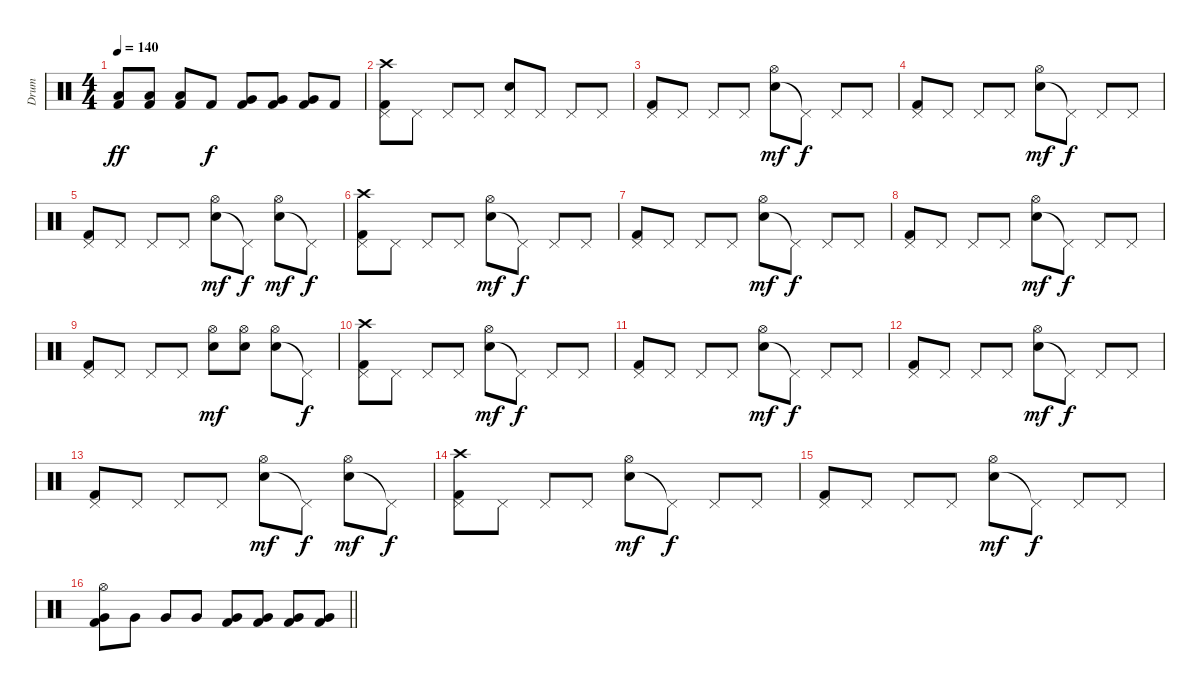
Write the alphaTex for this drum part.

\track ("Drum" "Drum") {instrument percussion}
\staff {score}
\articulation defaults
\ts (4 4)
\tempo 140
\clef neutral
\ks c
("Low Tom (hit)" "Kick (hit) 2").8{dy ff} ("Low Tom (hit)" "Kick (hit) 2").8 ("Low Tom (hit)" "Kick (hit) 2").8 "Kick (hit) 2".8{dy f} ("Very Low Tom (hit)" "Kick (hit) 2").8 ("Very Low Tom (hit)" "Kick (hit) 2").8 ("Very Low Tom (hit)" "Kick (hit) 2").8 "Kick (hit) 2".8 |
("Kick (hit) 2" "Pedal Hi-Hat (hit)" "Crash high (hit)").8 "Pedal Hi-Hat (hit)".8 "Pedal Hi-Hat (hit)".8 "Pedal Hi-Hat (hit)".8 ("Electric Snare (hit)" "Pedal Hi-Hat (hit)").8 "Pedal Hi-Hat (hit)".8 "Pedal Hi-Hat (hit)".8 "Pedal Hi-Hat (hit)".8 |
("Kick (hit) 2" "Pedal Hi-Hat (hit)").8 "Pedal Hi-Hat (hit)".8 "Pedal Hi-Hat (hit)".8 "Pedal Hi-Hat (hit)".8 ("Electric Snare (hit)" "Hi-Hat (open)").8{dy mf} "Pedal Hi-Hat (hit)"{t}.8{dy f} "Pedal Hi-Hat (hit)".8 "Pedal Hi-Hat (hit)".8 |
("Kick (hit) 2" "Pedal Hi-Hat (hit)").8 "Pedal Hi-Hat (hit)".8 "Pedal Hi-Hat (hit)".8 "Pedal Hi-Hat (hit)".8 ("Electric Snare (hit)" "Hi-Hat (open)").8{dy mf} "Pedal Hi-Hat (hit)"{t}.8{dy f} "Pedal Hi-Hat (hit)".8 "Pedal Hi-Hat (hit)".8 |
("Kick (hit) 2" "Pedal Hi-Hat (hit)").8 "Pedal Hi-Hat (hit)".8 "Pedal Hi-Hat (hit)".8 "Pedal Hi-Hat (hit)".8 ("Electric Snare (hit)" "Hi-Hat (open)").8{dy mf} "Pedal Hi-Hat (hit)"{t}.8{dy f} ("Electric Snare (hit)" "Hi-Hat (open)").8{dy mf} "Pedal Hi-Hat (hit)"{t}.8{dy f} |
("Kick (hit) 2" "Pedal Hi-Hat (hit)" "Crash high (hit)").8 "Pedal Hi-Hat (hit)".8 "Pedal Hi-Hat (hit)".8 "Pedal Hi-Hat (hit)".8 ("Electric Snare (hit)" "Hi-Hat (open)").8{dy mf} "Pedal Hi-Hat (hit)"{t}.8{dy f} "Pedal Hi-Hat (hit)".8 "Pedal Hi-Hat (hit)".8 |
("Kick (hit) 2" "Pedal Hi-Hat (hit)").8 "Pedal Hi-Hat (hit)".8 "Pedal Hi-Hat (hit)".8 "Pedal Hi-Hat (hit)".8 ("Electric Snare (hit)" "Hi-Hat (open)").8{dy mf} "Pedal Hi-Hat (hit)"{t}.8{dy f} "Pedal Hi-Hat (hit)".8 "Pedal Hi-Hat (hit)".8 |
("Kick (hit) 2" "Pedal Hi-Hat (hit)").8 "Pedal Hi-Hat (hit)".8 "Pedal Hi-Hat (hit)".8 "Pedal Hi-Hat (hit)".8 ("Electric Snare (hit)" "Hi-Hat (open)").8{dy mf} "Pedal Hi-Hat (hit)"{t}.8{dy f} "Pedal Hi-Hat (hit)".8 "Pedal Hi-Hat (hit)".8 |
("Kick (hit) 2" "Pedal Hi-Hat (hit)").8 "Pedal Hi-Hat (hit)".8 "Pedal Hi-Hat (hit)".8 "Pedal Hi-Hat (hit)".8 ("Electric Snare (hit)" "Hi-Hat (open)").8{dy mf} ("Electric Snare (hit)" "Hi-Hat (open)").8 ("Electric Snare (hit)" "Hi-Hat (open)").8 "Pedal Hi-Hat (hit)"{t}.8{dy f} |
("Kick (hit) 2" "Pedal Hi-Hat (hit)" "Crash high (hit)").8 "Pedal Hi-Hat (hit)".8 "Pedal Hi-Hat (hit)".8 "Pedal Hi-Hat (hit)".8 ("Electric Snare (hit)" "Hi-Hat (open)").8{dy mf} "Pedal Hi-Hat (hit)"{t}.8{dy f} "Pedal Hi-Hat (hit)".8 "Pedal Hi-Hat (hit)".8 |
("Kick (hit) 2" "Pedal Hi-Hat (hit)").8 "Pedal Hi-Hat (hit)".8 "Pedal Hi-Hat (hit)".8 "Pedal Hi-Hat (hit)".8 ("Electric Snare (hit)" "Hi-Hat (open)").8{dy mf} "Pedal Hi-Hat (hit)"{t}.8{dy f} "Pedal Hi-Hat (hit)".8 "Pedal Hi-Hat (hit)".8 |
("Kick (hit) 2" "Pedal Hi-Hat (hit)").8 "Pedal Hi-Hat (hit)".8 "Pedal Hi-Hat (hit)".8 "Pedal Hi-Hat (hit)".8 ("Electric Snare (hit)" "Hi-Hat (open)").8{dy mf} "Pedal Hi-Hat (hit)"{t}.8{dy f} "Pedal Hi-Hat (hit)".8 "Pedal Hi-Hat (hit)".8 |
("Kick (hit) 2" "Pedal Hi-Hat (hit)").8 "Pedal Hi-Hat (hit)".8 "Pedal Hi-Hat (hit)".8 "Pedal Hi-Hat (hit)".8 ("Electric Snare (hit)" "Hi-Hat (open)").8{dy mf} "Pedal Hi-Hat (hit)"{t}.8{dy f} ("Electric Snare (hit)" "Hi-Hat (open)").8{dy mf} "Pedal Hi-Hat (hit)"{t}.8{dy f} |
("Kick (hit) 2" "Pedal Hi-Hat (hit)" "Crash high (hit)").8 "Pedal Hi-Hat (hit)".8 "Pedal Hi-Hat (hit)".8 "Pedal Hi-Hat (hit)".8 ("Electric Snare (hit)" "Hi-Hat (open)").8{dy mf} "Pedal Hi-Hat (hit)"{t}.8{dy f} "Pedal Hi-Hat (hit)".8 "Pedal Hi-Hat (hit)".8 |
("Kick (hit) 2" "Pedal Hi-Hat (hit)").8 "Pedal Hi-Hat (hit)".8 "Pedal Hi-Hat (hit)".8 "Pedal Hi-Hat (hit)".8 ("Electric Snare (hit)" "Hi-Hat (open)").8{dy mf} "Pedal Hi-Hat (hit)"{t}.8{dy f} "Pedal Hi-Hat (hit)".8 "Pedal Hi-Hat (hit)".8 |
\barLineRight lightlight
("Very Low Tom (hit)" "Kick (hit) 2" "Hi-Hat (open)").8 "Very Low Tom (hit)".8 "Very Low Tom (hit)".8 "Very Low Tom (hit)".8 ("Very Low Tom (hit)" "Kick (hit) 2").8 ("Very Low Tom (hit)" "Kick (hit) 2").8 ("Very Low Tom (hit)" "Kick (hit) 2").8 ("Very Low Tom (hit)" "Kick (hit) 2").8
